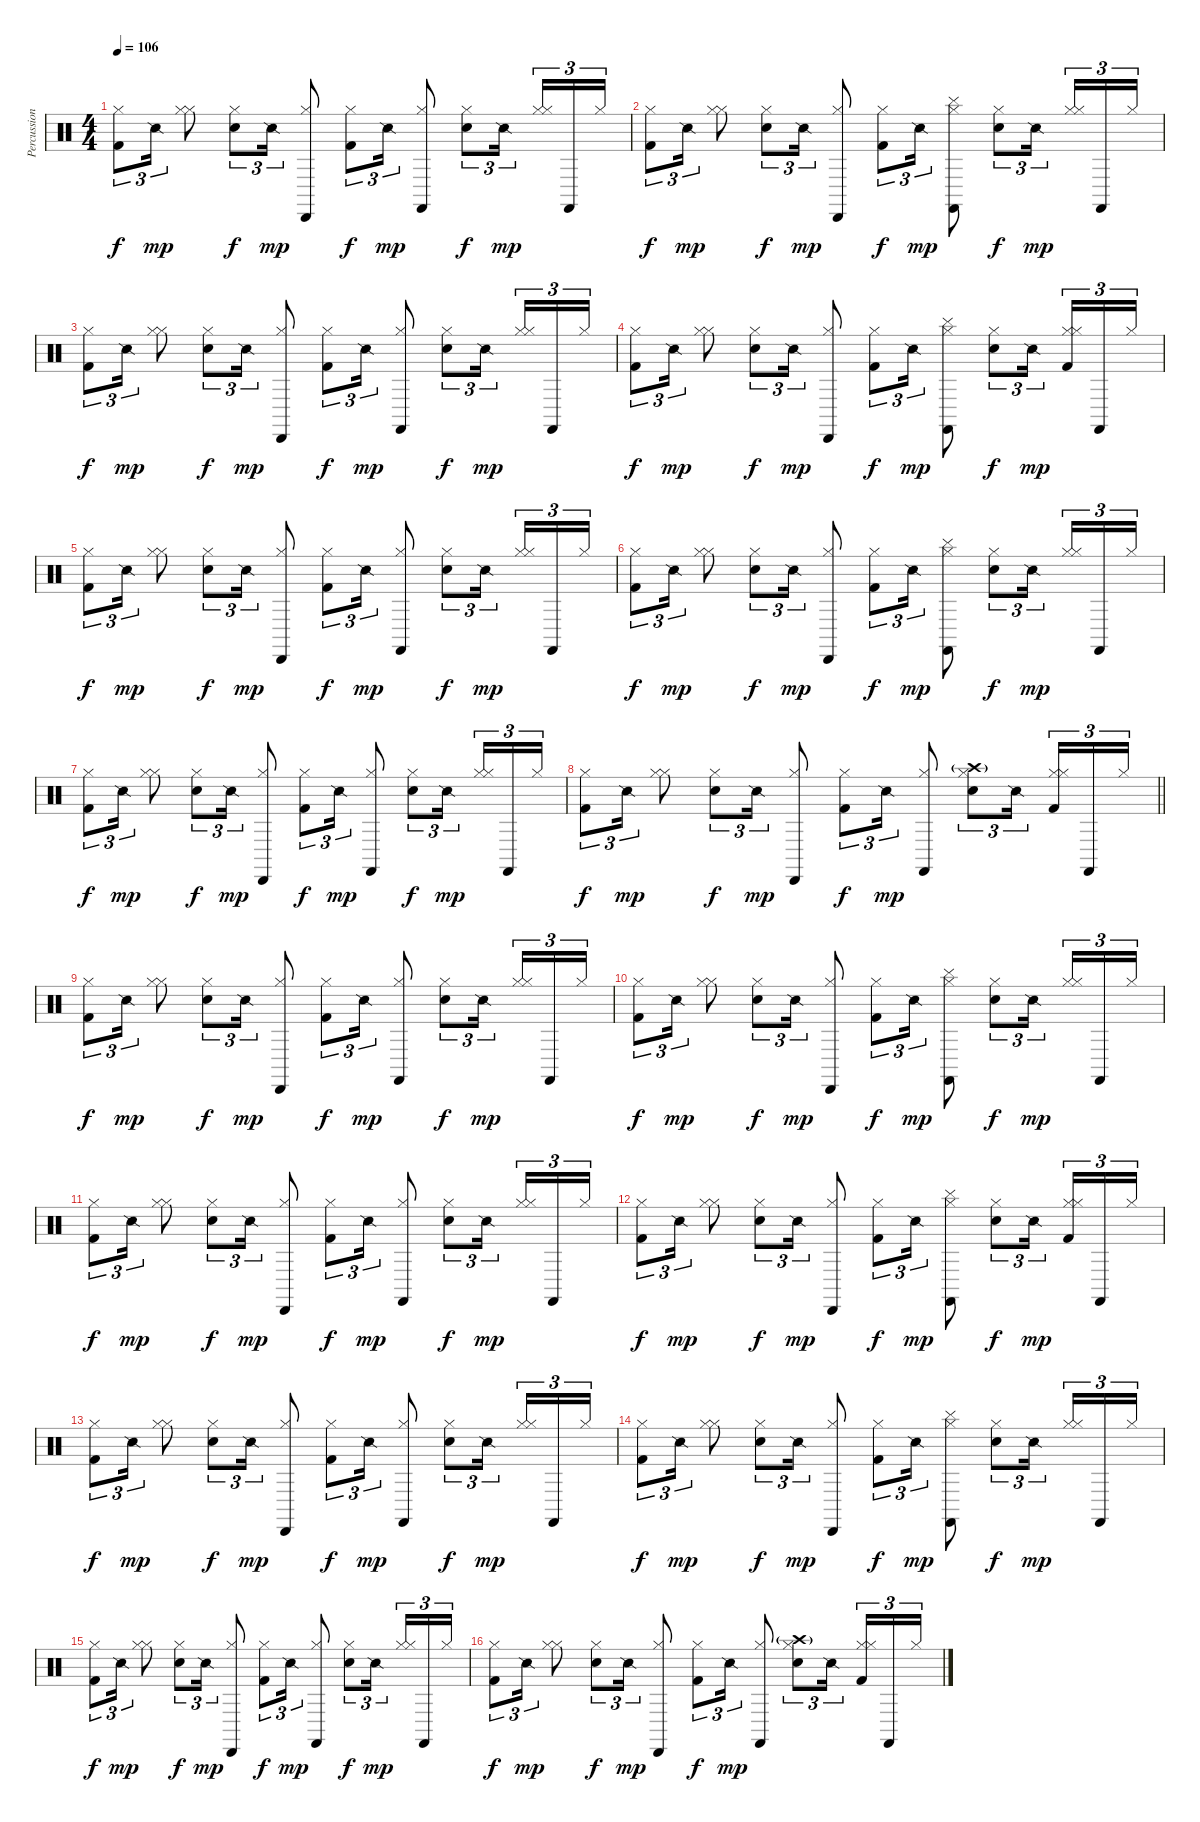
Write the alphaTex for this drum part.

\track ("Percussion" "Percussion") {instrument percussion}
\staff {score}
\articulation defaults
\ts (4 4)
\section ("" "")
\tempo 106
\clef neutral
\ks c
("Hi-Hat (closed)" "Kick (hit) 2").8{tu (3 2) dy f} "Snare (side stick) 2".16{tu (3 2) dy mp} ("Hi-Hat (closed)" "Hi-Hat (closed)").8 ("Hi-Hat (closed)" "Electric Snare (hit)").8{tu (3 2) dy f} "Snare (side stick) 2".16{tu (3 2) dy mp} ("Hi-Hat (closed)" "Cabasa (hit)").8 ("Hi-Hat (closed)" "Kick (hit) 2").8{tu (3 2) dy f} "Snare (side stick) 2".16{tu (3 2) dy mp} ("Hi-Hat (closed)" "Castanets (hit)").8 ("Hi-Hat (closed)" "Electric Snare (hit)").8{tu (3 2) dy f} "Snare (side stick) 2".16{tu (3 2) dy mp beam splitsecondary} ("Hi-Hat (closed)" "Hi-Hat (closed)").16{tu (3 2)} "Castanets (hit)".16{tu (3 2)} "Hi-Hat (closed)".16{tu (3 2)} |
("Hi-Hat (closed)" "Kick (hit) 2").8{tu (3 2) dy f} "Snare (side stick) 2".16{tu (3 2) dy mp} ("Hi-Hat (closed)" "Hi-Hat (closed)").8 ("Hi-Hat (closed)" "Electric Snare (hit)").8{tu (3 2) dy f} "Snare (side stick) 2".16{tu (3 2) dy mp} ("Hi-Hat (closed)" "Cabasa (hit)").8 ("Hi-Hat (closed)" "Kick (hit) 2").8{tu (3 2) dy f} "Snare (side stick) 2".16{tu (3 2) dy mp} ("Hi-Hat (closed)" "Castanets (hit)" "Cymbal (hit)").8 ("Hi-Hat (closed)" "Electric Snare (hit)").8{tu (3 2) dy f} "Snare (side stick) 2".16{tu (3 2) dy mp beam splitsecondary} ("Hi-Hat (closed)" "Hi-Hat (closed)").16{tu (3 2)} "Castanets (hit)".16{tu (3 2)} "Hi-Hat (closed)".16{tu (3 2)} |
("Hi-Hat (closed)" "Kick (hit) 2").8{tu (3 2) dy f} "Snare (side stick) 2".16{tu (3 2) dy mp} ("Hi-Hat (closed)" "Hi-Hat (closed)").8 ("Hi-Hat (closed)" "Electric Snare (hit)").8{tu (3 2) dy f} "Snare (side stick) 2".16{tu (3 2) dy mp} ("Hi-Hat (closed)" "Cabasa (hit)").8 ("Hi-Hat (closed)" "Kick (hit) 2").8{tu (3 2) dy f} "Snare (side stick) 2".16{tu (3 2) dy mp} ("Hi-Hat (closed)" "Castanets (hit)").8 ("Hi-Hat (closed)" "Electric Snare (hit)").8{tu (3 2) dy f} "Snare (side stick) 2".16{tu (3 2) dy mp beam splitsecondary} ("Hi-Hat (closed)" "Hi-Hat (closed)").16{tu (3 2)} "Castanets (hit)".16{tu (3 2)} "Hi-Hat (closed)".16{tu (3 2)} |
("Hi-Hat (closed)" "Kick (hit) 2").8{tu (3 2) dy f} "Snare (side stick) 2".16{tu (3 2) dy mp} ("Hi-Hat (closed)" "Hi-Hat (closed)").8 ("Hi-Hat (closed)" "Electric Snare (hit)").8{tu (3 2) dy f} "Snare (side stick) 2".16{tu (3 2) dy mp} ("Hi-Hat (closed)" "Cabasa (hit)").8 ("Hi-Hat (closed)" "Kick (hit) 2").8{tu (3 2) dy f} "Snare (side stick) 2".16{tu (3 2) dy mp} ("Hi-Hat (closed)" "Castanets (hit)" "Cymbal (hit)").8 ("Hi-Hat (closed)" "Electric Snare (hit)").8{tu (3 2) dy f} "Snare (side stick) 2".16{tu (3 2) dy mp beam splitsecondary} ("Hi-Hat (closed)" "Hi-Hat (closed)" "Kick (hit) 2").16{tu (3 2)} "Castanets (hit)".16{tu (3 2)} "Hi-Hat (closed)".16{tu (3 2)} |
("Hi-Hat (closed)" "Kick (hit) 2").8{tu (3 2) dy f} "Snare (side stick) 2".16{tu (3 2) dy mp} ("Hi-Hat (closed)" "Hi-Hat (closed)").8 ("Hi-Hat (closed)" "Electric Snare (hit)").8{tu (3 2) dy f} "Snare (side stick) 2".16{tu (3 2) dy mp} ("Hi-Hat (closed)" "Cabasa (hit)").8 ("Hi-Hat (closed)" "Kick (hit) 2").8{tu (3 2) dy f} "Snare (side stick) 2".16{tu (3 2) dy mp} ("Hi-Hat (closed)" "Castanets (hit)").8 ("Hi-Hat (closed)" "Electric Snare (hit)").8{tu (3 2) dy f} "Snare (side stick) 2".16{tu (3 2) dy mp beam splitsecondary} ("Hi-Hat (closed)" "Hi-Hat (closed)").16{tu (3 2)} "Castanets (hit)".16{tu (3 2)} "Hi-Hat (closed)".16{tu (3 2)} |
("Hi-Hat (closed)" "Kick (hit) 2").8{tu (3 2) dy f} "Snare (side stick) 2".16{tu (3 2) dy mp} ("Hi-Hat (closed)" "Hi-Hat (closed)").8 ("Hi-Hat (closed)" "Electric Snare (hit)").8{tu (3 2) dy f} "Snare (side stick) 2".16{tu (3 2) dy mp} ("Hi-Hat (closed)" "Cabasa (hit)").8 ("Hi-Hat (closed)" "Kick (hit) 2").8{tu (3 2) dy f} "Snare (side stick) 2".16{tu (3 2) dy mp} ("Hi-Hat (closed)" "Castanets (hit)" "Cymbal (hit)").8 ("Hi-Hat (closed)" "Electric Snare (hit)").8{tu (3 2) dy f} "Snare (side stick) 2".16{tu (3 2) dy mp beam splitsecondary} ("Hi-Hat (closed)" "Hi-Hat (closed)").16{tu (3 2)} "Castanets (hit)".16{tu (3 2)} "Hi-Hat (closed)".16{tu (3 2)} |
("Hi-Hat (closed)" "Kick (hit) 2").8{tu (3 2) dy f} "Snare (side stick) 2".16{tu (3 2) dy mp} ("Hi-Hat (closed)" "Hi-Hat (closed)").8 ("Hi-Hat (closed)" "Electric Snare (hit)").8{tu (3 2) dy f} "Snare (side stick) 2".16{tu (3 2) dy mp} ("Hi-Hat (closed)" "Cabasa (hit)").8 ("Hi-Hat (closed)" "Kick (hit) 2").8{tu (3 2) dy f} "Snare (side stick) 2".16{tu (3 2) dy mp} ("Hi-Hat (closed)" "Castanets (hit)").8 ("Hi-Hat (closed)" "Electric Snare (hit)").8{tu (3 2) dy f} "Snare (side stick) 2".16{tu (3 2) dy mp beam splitsecondary} ("Hi-Hat (closed)" "Hi-Hat (closed)").16{tu (3 2)} "Castanets (hit)".16{tu (3 2)} "Hi-Hat (closed)".16{tu (3 2)} |
\barLineRight lightlight
("Hi-Hat (closed)" "Kick (hit) 2").8{tu (3 2) dy f} "Snare (side stick) 2".16{tu (3 2) dy mp} ("Hi-Hat (closed)" "Hi-Hat (closed)").8 ("Hi-Hat (closed)" "Electric Snare (hit)").8{tu (3 2) dy f} "Snare (side stick) 2".16{tu (3 2) dy mp} ("Hi-Hat (closed)" "Cabasa (hit)").8 ("Hi-Hat (closed)" "Kick (hit) 2").8{tu (3 2) dy f} "Snare (side stick) 2".16{tu (3 2) dy mp} ("Hi-Hat (closed)" "Castanets (hit)").8 ("Crash high (hit)"{g} "Hi-Hat (closed)" "Electric Snare (hit)").8{tu (3 2)} "Snare (side stick) 2".16{tu (3 2) beam splitsecondary} ("Hi-Hat (closed)" "Hi-Hat (closed)" "Kick (hit) 2").16{tu (3 2)} "Castanets (hit)".16{tu (3 2)} "Hi-Hat (closed)".16{tu (3 2)} |
\section ("" "")
("Hi-Hat (closed)" "Kick (hit) 2").8{tu (3 2) dy f} "Snare (side stick) 2".16{tu (3 2) dy mp} ("Hi-Hat (closed)" "Hi-Hat (closed)").8 ("Hi-Hat (closed)" "Electric Snare (hit)").8{tu (3 2) dy f} "Snare (side stick) 2".16{tu (3 2) dy mp} ("Hi-Hat (closed)" "Cabasa (hit)").8 ("Hi-Hat (closed)" "Kick (hit) 2").8{tu (3 2) dy f} "Snare (side stick) 2".16{tu (3 2) dy mp} ("Hi-Hat (closed)" "Castanets (hit)").8 ("Hi-Hat (closed)" "Electric Snare (hit)").8{tu (3 2) dy f} "Snare (side stick) 2".16{tu (3 2) dy mp beam splitsecondary} ("Hi-Hat (closed)" "Hi-Hat (closed)").16{tu (3 2)} "Castanets (hit)".16{tu (3 2)} "Hi-Hat (closed)".16{tu (3 2)} |
("Hi-Hat (closed)" "Kick (hit) 2").8{tu (3 2) dy f} "Snare (side stick) 2".16{tu (3 2) dy mp} ("Hi-Hat (closed)" "Hi-Hat (closed)").8 ("Hi-Hat (closed)" "Electric Snare (hit)").8{tu (3 2) dy f} "Snare (side stick) 2".16{tu (3 2) dy mp} ("Hi-Hat (closed)" "Cabasa (hit)").8 ("Hi-Hat (closed)" "Kick (hit) 2").8{tu (3 2) dy f} "Snare (side stick) 2".16{tu (3 2) dy mp} ("Hi-Hat (closed)" "Castanets (hit)" "Cymbal (hit)").8 ("Hi-Hat (closed)" "Electric Snare (hit)").8{tu (3 2) dy f} "Snare (side stick) 2".16{tu (3 2) dy mp beam splitsecondary} ("Hi-Hat (closed)" "Hi-Hat (closed)").16{tu (3 2)} "Castanets (hit)".16{tu (3 2)} "Hi-Hat (closed)".16{tu (3 2)} |
("Hi-Hat (closed)" "Kick (hit) 2").8{tu (3 2) dy f} "Snare (side stick) 2".16{tu (3 2) dy mp} ("Hi-Hat (closed)" "Hi-Hat (closed)").8 ("Hi-Hat (closed)" "Electric Snare (hit)").8{tu (3 2) dy f} "Snare (side stick) 2".16{tu (3 2) dy mp} ("Hi-Hat (closed)" "Cabasa (hit)").8 ("Hi-Hat (closed)" "Kick (hit) 2").8{tu (3 2) dy f} "Snare (side stick) 2".16{tu (3 2) dy mp} ("Hi-Hat (closed)" "Castanets (hit)").8 ("Hi-Hat (closed)" "Electric Snare (hit)").8{tu (3 2) dy f} "Snare (side stick) 2".16{tu (3 2) dy mp beam splitsecondary} ("Hi-Hat (closed)" "Hi-Hat (closed)").16{tu (3 2)} "Castanets (hit)".16{tu (3 2)} "Hi-Hat (closed)".16{tu (3 2)} |
("Hi-Hat (closed)" "Kick (hit) 2").8{tu (3 2) dy f} "Snare (side stick) 2".16{tu (3 2) dy mp} ("Hi-Hat (closed)" "Hi-Hat (closed)").8 ("Hi-Hat (closed)" "Electric Snare (hit)").8{tu (3 2) dy f} "Snare (side stick) 2".16{tu (3 2) dy mp} ("Hi-Hat (closed)" "Cabasa (hit)").8 ("Hi-Hat (closed)" "Kick (hit) 2").8{tu (3 2) dy f} "Snare (side stick) 2".16{tu (3 2) dy mp} ("Hi-Hat (closed)" "Castanets (hit)" "Cymbal (hit)").8 ("Hi-Hat (closed)" "Electric Snare (hit)").8{tu (3 2) dy f} "Snare (side stick) 2".16{tu (3 2) dy mp beam splitsecondary} ("Hi-Hat (closed)" "Hi-Hat (closed)" "Kick (hit) 2").16{tu (3 2)} "Castanets (hit)".16{tu (3 2)} "Hi-Hat (closed)".16{tu (3 2)} |
("Hi-Hat (closed)" "Kick (hit) 2").8{tu (3 2) dy f volume 0} "Snare (side stick) 2".16{tu (3 2) dy mp} ("Hi-Hat (closed)" "Hi-Hat (closed)").8 ("Hi-Hat (closed)" "Electric Snare (hit)").8{tu (3 2) dy f} "Snare (side stick) 2".16{tu (3 2) dy mp} ("Hi-Hat (closed)" "Cabasa (hit)").8 ("Hi-Hat (closed)" "Kick (hit) 2").8{tu (3 2) dy f} "Snare (side stick) 2".16{tu (3 2) dy mp} ("Hi-Hat (closed)" "Castanets (hit)").8 ("Hi-Hat (closed)" "Electric Snare (hit)").8{tu (3 2) dy f} "Snare (side stick) 2".16{tu (3 2) dy mp beam splitsecondary} ("Hi-Hat (closed)" "Hi-Hat (closed)").16{tu (3 2)} "Castanets (hit)".16{tu (3 2)} "Hi-Hat (closed)".16{tu (3 2)} |
("Hi-Hat (closed)" "Kick (hit) 2").8{tu (3 2) dy f} "Snare (side stick) 2".16{tu (3 2) dy mp} ("Hi-Hat (closed)" "Hi-Hat (closed)").8 ("Hi-Hat (closed)" "Electric Snare (hit)").8{tu (3 2) dy f} "Snare (side stick) 2".16{tu (3 2) dy mp} ("Hi-Hat (closed)" "Cabasa (hit)").8 ("Hi-Hat (closed)" "Kick (hit) 2").8{tu (3 2) dy f} "Snare (side stick) 2".16{tu (3 2) dy mp} ("Hi-Hat (closed)" "Castanets (hit)" "Cymbal (hit)").8 ("Hi-Hat (closed)" "Electric Snare (hit)").8{tu (3 2) dy f} "Snare (side stick) 2".16{tu (3 2) dy mp beam splitsecondary} ("Hi-Hat (closed)" "Hi-Hat (closed)").16{tu (3 2)} "Castanets (hit)".16{tu (3 2)} "Hi-Hat (closed)".16{tu (3 2)} |
("Hi-Hat (closed)" "Kick (hit) 2").8{tu (3 2) dy f} "Snare (side stick) 2".16{tu (3 2) dy mp} ("Hi-Hat (closed)" "Hi-Hat (closed)").8 ("Hi-Hat (closed)" "Electric Snare (hit)").8{tu (3 2) dy f} "Snare (side stick) 2".16{tu (3 2) dy mp} ("Hi-Hat (closed)" "Cabasa (hit)").8 ("Hi-Hat (closed)" "Kick (hit) 2").8{tu (3 2) dy f} "Snare (side stick) 2".16{tu (3 2) dy mp} ("Hi-Hat (closed)" "Castanets (hit)").8 ("Hi-Hat (closed)" "Electric Snare (hit)").8{tu (3 2) dy f} "Snare (side stick) 2".16{tu (3 2) dy mp beam splitsecondary} ("Hi-Hat (closed)" "Hi-Hat (closed)").16{tu (3 2)} "Castanets (hit)".16{tu (3 2)} "Hi-Hat (closed)".16{tu (3 2)} |
("Hi-Hat (closed)" "Kick (hit) 2").8{tu (3 2) dy f} "Snare (side stick) 2".16{tu (3 2) dy mp} ("Hi-Hat (closed)" "Hi-Hat (closed)").8 ("Hi-Hat (closed)" "Electric Snare (hit)").8{tu (3 2) dy f} "Snare (side stick) 2".16{tu (3 2) dy mp} ("Hi-Hat (closed)" "Cabasa (hit)").8 ("Hi-Hat (closed)" "Kick (hit) 2").8{tu (3 2) dy f} "Snare (side stick) 2".16{tu (3 2) dy mp} ("Hi-Hat (closed)" "Castanets (hit)").8 ("Crash high (hit)"{g} "Hi-Hat (closed)" "Electric Snare (hit)").8{tu (3 2)} "Snare (side stick) 2".16{tu (3 2) beam splitsecondary} ("Hi-Hat (closed)" "Hi-Hat (closed)" "Kick (hit) 2").16{tu (3 2)} "Castanets (hit)".16{tu (3 2)} "Hi-Hat (closed)".16{tu (3 2)}
